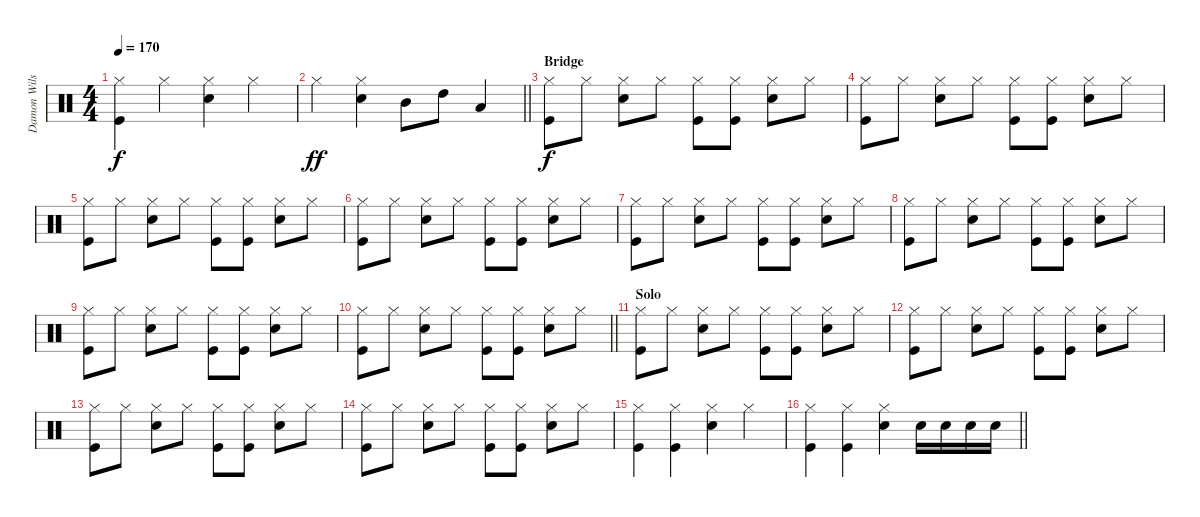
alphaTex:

\track ("Damon Wilson" "Damon Wils") {instrument percussion}
\staff {score}
\articulation defaults
\ts (4 4)
\tempo 170
\clef neutral
\ks c
("Hi-Hat (closed)" "Kick (hit)").4{dy f} "Hi-Hat (closed)".4 ("Hi-Hat (closed)" "Snare (hit) 2").4 "Hi-Hat (closed)".4 |
\barLineRight lightlight "Hi-Hat (closed)".4{dy ff}
("Hi-Hat (closed)" "Snare (hit) 2").4 "Mid Tom (hit)".8 "High Tom (hit)".8 "Low Floor Tom (hit)".4 |
\section ("" "Bridge")
("Hi-Hat (closed)" "Kick (hit)").8{dy f} "Hi-Hat (closed)".8 ("Hi-Hat (closed)" "Snare (hit) 2").8 "Hi-Hat (closed)".8 ("Hi-Hat (closed)" "Kick (hit)").8 ("Hi-Hat (closed)" "Kick (hit)").8 ("Hi-Hat (closed)" "Snare (hit) 2").8 "Hi-Hat (closed)".8 |
("Hi-Hat (closed)" "Kick (hit)").8 "Hi-Hat (closed)".8 ("Hi-Hat (closed)" "Snare (hit) 2").8 "Hi-Hat (closed)".8 ("Hi-Hat (closed)" "Kick (hit)").8 ("Hi-Hat (closed)" "Kick (hit)").8 ("Hi-Hat (closed)" "Snare (hit) 2").8 "Hi-Hat (closed)".8 |
("Hi-Hat (closed)" "Kick (hit)").8 "Hi-Hat (closed)".8 ("Hi-Hat (closed)" "Snare (hit) 2").8 "Hi-Hat (closed)".8 ("Hi-Hat (closed)" "Kick (hit)").8 ("Hi-Hat (closed)" "Kick (hit)").8 ("Hi-Hat (closed)" "Snare (hit) 2").8 "Hi-Hat (closed)".8 |
("Hi-Hat (closed)" "Kick (hit)").8 "Hi-Hat (closed)".8 ("Hi-Hat (closed)" "Snare (hit) 2").8 "Hi-Hat (closed)".8 ("Hi-Hat (closed)" "Kick (hit)").8 ("Hi-Hat (closed)" "Kick (hit)").8 ("Hi-Hat (closed)" "Snare (hit) 2").8 "Hi-Hat (closed)".8 |
("Hi-Hat (closed)" "Kick (hit)").8 "Hi-Hat (closed)".8 ("Hi-Hat (closed)" "Snare (hit) 2").8 "Hi-Hat (closed)".8 ("Hi-Hat (closed)" "Kick (hit)").8 ("Hi-Hat (closed)" "Kick (hit)").8 ("Hi-Hat (closed)" "Snare (hit) 2").8 "Hi-Hat (closed)".8 |
("Hi-Hat (closed)" "Kick (hit)").8 "Hi-Hat (closed)".8 ("Hi-Hat (closed)" "Snare (hit) 2").8 "Hi-Hat (closed)".8 ("Hi-Hat (closed)" "Kick (hit)").8 ("Hi-Hat (closed)" "Kick (hit)").8 ("Hi-Hat (closed)" "Snare (hit) 2").8 "Hi-Hat (closed)".8 |
("Hi-Hat (closed)" "Kick (hit)").8 "Hi-Hat (closed)".8 ("Hi-Hat (closed)" "Snare (hit) 2").8 "Hi-Hat (closed)".8 ("Hi-Hat (closed)" "Kick (hit)").8 ("Hi-Hat (closed)" "Kick (hit)").8 ("Hi-Hat (closed)" "Snare (hit) 2").8 "Hi-Hat (closed)".8 |
\barLineRight lightlight
("Hi-Hat (closed)" "Kick (hit)").8 "Hi-Hat (closed)".8 ("Hi-Hat (closed)" "Snare (hit) 2").8 "Hi-Hat (closed)".8 ("Hi-Hat (closed)" "Kick (hit)").8 ("Hi-Hat (closed)" "Kick (hit)").8 ("Hi-Hat (closed)" "Snare (hit) 2").8 "Hi-Hat (closed)".8 |
\section ("" "Solo")
("Hi-Hat (closed)" "Kick (hit)").8 "Hi-Hat (closed)".8 ("Hi-Hat (closed)" "Snare (hit) 2").8 "Hi-Hat (closed)".8 ("Hi-Hat (closed)" "Kick (hit)").8 ("Hi-Hat (closed)" "Kick (hit)").8 ("Hi-Hat (closed)" "Snare (hit) 2").8 "Hi-Hat (closed)".8 |
("Hi-Hat (closed)" "Kick (hit)").8 "Hi-Hat (closed)".8 ("Hi-Hat (closed)" "Snare (hit) 2").8 "Hi-Hat (closed)".8 ("Hi-Hat (closed)" "Kick (hit)").8 ("Hi-Hat (closed)" "Kick (hit)").8 ("Hi-Hat (closed)" "Snare (hit) 2").8 "Hi-Hat (closed)".8 |
("Hi-Hat (closed)" "Kick (hit)").8 "Hi-Hat (closed)".8 ("Hi-Hat (closed)" "Snare (hit) 2").8 "Hi-Hat (closed)".8 ("Hi-Hat (closed)" "Kick (hit)").8 ("Hi-Hat (closed)" "Kick (hit)").8 ("Hi-Hat (closed)" "Snare (hit) 2").8 "Hi-Hat (closed)".8 |
("Hi-Hat (closed)" "Kick (hit)").8 "Hi-Hat (closed)".8 ("Hi-Hat (closed)" "Snare (hit) 2").8 "Hi-Hat (closed)".8 ("Hi-Hat (closed)" "Kick (hit)").8 ("Hi-Hat (closed)" "Kick (hit)").8 ("Hi-Hat (closed)" "Snare (hit) 2").8 "Hi-Hat (closed)".8 |
("Hi-Hat (closed)" "Kick (hit)").4 ("Hi-Hat (closed)" "Kick (hit)").4 ("Hi-Hat (closed)" "Snare (hit) 2").4 "Hi-Hat (closed)".4 |
\barLineRight lightlight
("Hi-Hat (closed)" "Kick (hit)").4 ("Hi-Hat (closed)" "Kick (hit)").4 ("Hi-Hat (closed)" "Snare (hit) 2").4 "Snare (hit) 2".16 "Snare (hit) 2".16 "Snare (hit) 2".16 "Snare (hit) 2".16
